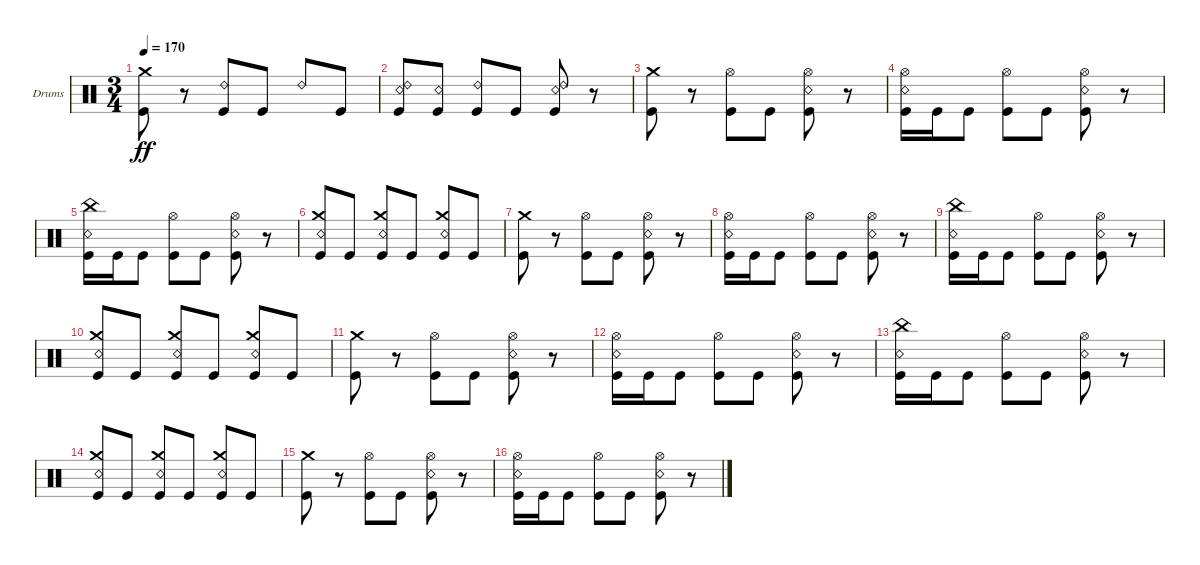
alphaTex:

\bracketExtendMode groupsimilarinstruments
\firstSystemTrackNameOrientation horizontal
\otherSystemsTrackNameOrientation horizontal
\track ("Kaleb - Drums" "Drums") {instrument percussion}
\staff {score}
\articulation defaults
\ts (3 4)
\tempo 170
\clef neutral
\ks c
("Kick (hit)" "Crash medium (hit)").8{dy ff} r.8 ("Kick (hit)" "Ride (bell) 2").8 "Kick (hit)".8 "Ride (bell) 2".8 "Kick (hit)".8 |
("Kick (hit)" "Ride (bell) 2" "Snare (rim shot)").8 ("Kick (hit)" "Snare (rim shot)").8 ("Kick (hit)" "Ride (bell) 2").8 "Kick (hit)".8 ("Kick (hit)" "Ride (bell) 2" "Snare (rim shot)").8 r.8 |
("Kick (hit)" "Crash medium (hit)").8 r.8 ("Kick (hit)" "Hi-Hat (open)").8 "Kick (hit)".8 ("Kick (hit)" "Hi-Hat (open)" "Snare (rim shot)").8 r.8 |
("Kick (hit)" "Hi-Hat (open)" "Snare (rim shot)").16 "Kick (hit)".16 "Kick (hit)".8 ("Kick (hit)" "Hi-Hat (open)").8 "Kick (hit)".8 ("Kick (hit)" "Hi-Hat (open)" "Snare (rim shot)").8 r.8 |
("Kick (hit)" "Snare (rim shot)" "China (hit)").16 "Kick (hit)".16 "Kick (hit)".8 ("Kick (hit)" "Hi-Hat (open)").8 "Kick (hit)".8 ("Kick (hit)" "Hi-Hat (open)" "Snare (rim shot)").8 r.8 |
("Kick (hit)" "Crash medium (hit)" "Snare (rim shot)").8 "Kick (hit)".8 ("Kick (hit)" "Crash medium (hit)" "Snare (rim shot)").8 "Kick (hit)".8 ("Kick (hit)" "Crash medium (hit)" "Snare (rim shot)").8 "Kick (hit)".8 |
("Kick (hit)" "Crash medium (hit)").8 r.8 ("Kick (hit)" "Hi-Hat (open)").8 "Kick (hit)".8 ("Kick (hit)" "Hi-Hat (open)" "Snare (rim shot)").8 r.8 |
("Kick (hit)" "Hi-Hat (open)" "Snare (rim shot)").16 "Kick (hit)".16 "Kick (hit)".8 ("Kick (hit)" "Hi-Hat (open)").8 "Kick (hit)".8 ("Kick (hit)" "Hi-Hat (open)" "Snare (rim shot)").8 r.8 |
("Kick (hit)" "Snare (rim shot)" "China (hit)").16 "Kick (hit)".16 "Kick (hit)".8 ("Kick (hit)" "Hi-Hat (open)").8 "Kick (hit)".8 ("Kick (hit)" "Hi-Hat (open)" "Snare (rim shot)").8 r.8 |
("Kick (hit)" "Crash medium (hit)" "Snare (rim shot)").8 "Kick (hit)".8 ("Kick (hit)" "Crash medium (hit)" "Snare (rim shot)").8 "Kick (hit)".8 ("Kick (hit)" "Crash medium (hit)" "Snare (rim shot)").8 "Kick (hit)".8 |
("Kick (hit)" "Crash medium (hit)").8 r.8 ("Kick (hit)" "Hi-Hat (open)").8 "Kick (hit)".8 ("Kick (hit)" "Hi-Hat (open)" "Snare (rim shot)").8 r.8 |
("Kick (hit)" "Hi-Hat (open)" "Snare (rim shot)").16 "Kick (hit)".16 "Kick (hit)".8 ("Kick (hit)" "Hi-Hat (open)").8 "Kick (hit)".8 ("Kick (hit)" "Hi-Hat (open)" "Snare (rim shot)").8 r.8 |
("Kick (hit)" "Snare (rim shot)" "China (hit)").16 "Kick (hit)".16 "Kick (hit)".8 ("Kick (hit)" "Hi-Hat (open)").8 "Kick (hit)".8 ("Kick (hit)" "Hi-Hat (open)" "Snare (rim shot)").8 r.8 |
("Kick (hit)" "Crash medium (hit)" "Snare (rim shot)").8 "Kick (hit)".8 ("Kick (hit)" "Crash medium (hit)" "Snare (rim shot)").8 "Kick (hit)".8 ("Kick (hit)" "Crash medium (hit)" "Snare (rim shot)").8 "Kick (hit)".8 |
("Kick (hit)" "Crash medium (hit)").8 r.8 ("Kick (hit)" "Hi-Hat (open)").8 "Kick (hit)".8 ("Kick (hit)" "Hi-Hat (open)" "Snare (rim shot)").8 r.8 |
("Kick (hit)" "Hi-Hat (open)" "Snare (rim shot)").16 "Kick (hit)".16 "Kick (hit)".8 ("Kick (hit)" "Hi-Hat (open)").8 "Kick (hit)".8 ("Kick (hit)" "Hi-Hat (open)" "Snare (rim shot)").8 r.8
